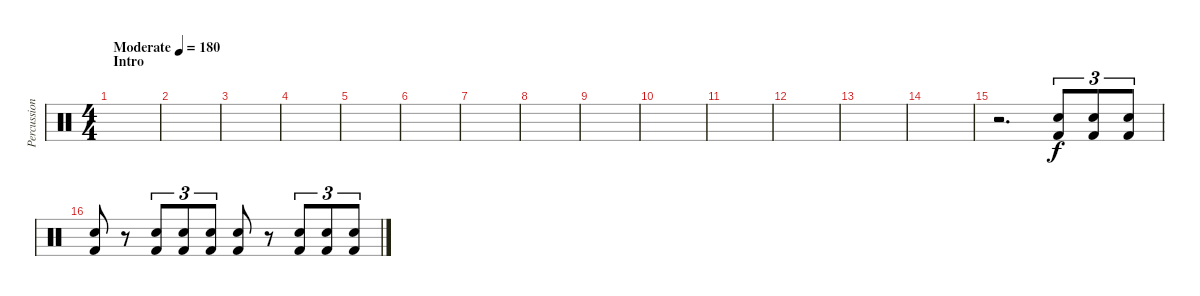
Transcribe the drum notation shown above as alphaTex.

\track ("Percussion" "Percussion") {instrument percussion}
\staff {score}
\articulation defaults
\ts (4 4)
\section ("" "Intro")
\tempo (180 "Moderate")
\clef neutral
\ks c
|
|
|
|
|
|
|
|
|
|
|
|
|
|
r.2{d} ("Kick (hit) 2" "Electric Snare (hit)").8{tu (3 2)} ("Kick (hit) 2" "Electric Snare (hit)").8{tu (3 2)} ("Kick (hit) 2" "Electric Snare (hit)").8{tu (3 2)} |
("Kick (hit) 2" "Electric Snare (hit)").8 r.8 ("Kick (hit) 2" "Electric Snare (hit)").8{tu (3 2)} ("Kick (hit) 2" "Electric Snare (hit)").8{tu (3 2)} ("Kick (hit) 2" "Electric Snare (hit)").8{tu (3 2)} ("Kick (hit) 2" "Electric Snare (hit)").8 r.8 ("Kick (hit) 2" "Electric Snare (hit)").8{tu (3 2)} ("Kick (hit) 2" "Electric Snare (hit)").8{tu (3 2)} ("Kick (hit) 2" "Electric Snare (hit)").8{tu (3 2)}
